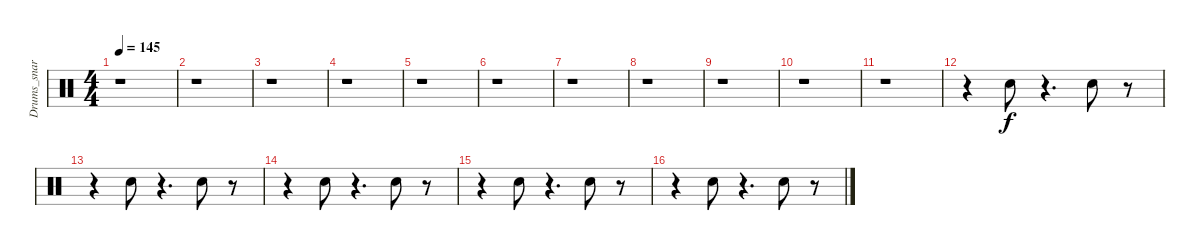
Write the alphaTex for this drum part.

\track ("Drums_snare&tom" "Drums_snar") {instrument percussion}
\staff {score}
\articulation defaults
\ts (4 4)
\tempo 145
\clef neutral
\ks c
r.1{dy f} |
r.1 |
r.1 |
r.1 |
r.1 |
r.1 |
r.1 |
r.1 |
r.1 |
r.1 |
r.1 |
r.4 "Electric Snare (hit)".8 r.4{d} "Electric Snare (hit)".8 r.8 |
r.4 "Electric Snare (hit)".8 r.4{d} "Electric Snare (hit)".8 r.8 |
r.4 "Electric Snare (hit)".8 r.4{d} "Electric Snare (hit)".8 r.8 |
r.4 "Electric Snare (hit)".8 r.4{d} "Electric Snare (hit)".8 r.8 |
r.4 "Electric Snare (hit)".8 r.4{d} "Electric Snare (hit)".8 r.8
